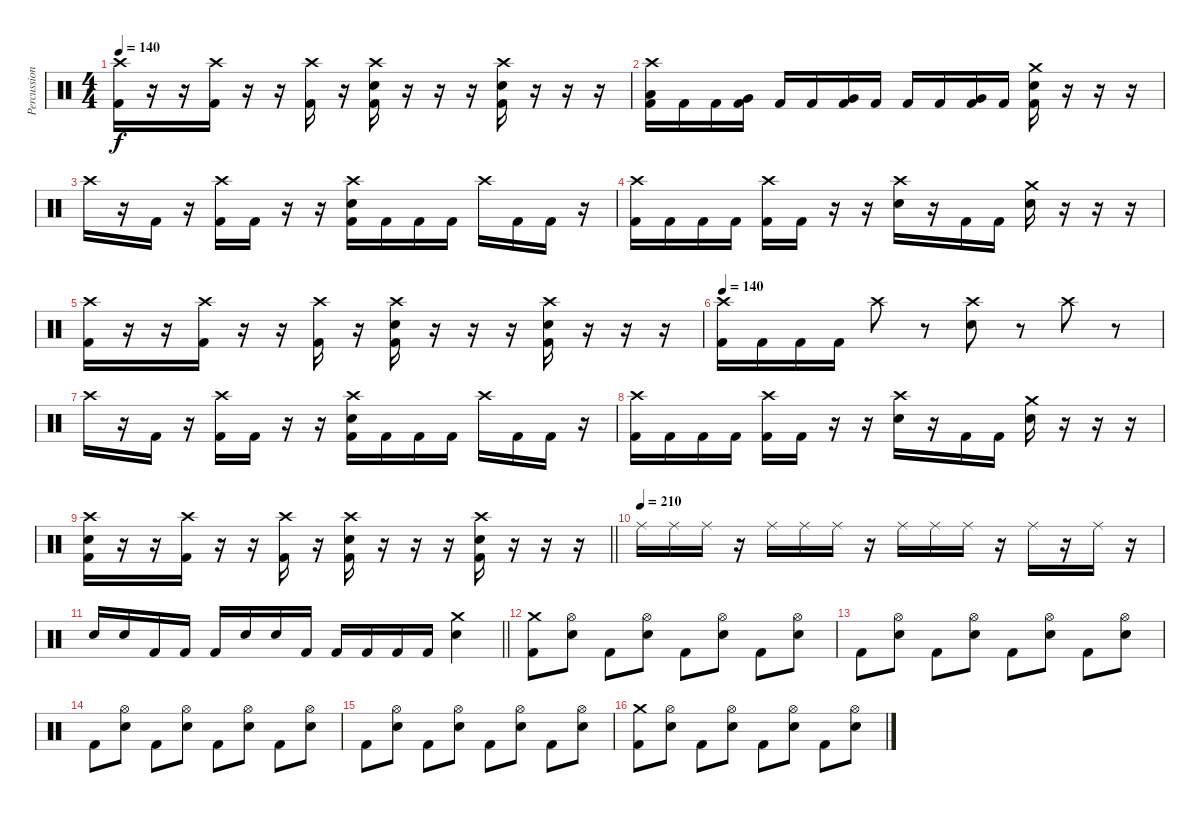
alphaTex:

\track ("Percussion" "Percussion") {instrument percussion}
\staff {score}
\articulation defaults
\ts (4 4)
\tempo 140
\clef neutral
\ks c
("Crash high (hit)" "Kick (hit) 2").16{dy f} r.16 r.16 ("Crash high (hit)" "Kick (hit) 2").16 r.16 r.16 ("Crash high (hit)" "Kick (hit) 2").16 r.16 ("Crash high (hit)" "Snare (hit) 2" "Kick (hit) 2").16 r.16 r.16 r.16 ("Crash high (hit)" "Snare (hit) 2" "Kick (hit) 2").16 r.16 r.16 r.16 |
("Crash high (hit)" "Low Tom (hit)" "Kick (hit) 2").16 "Kick (hit) 2".16 "Kick (hit) 2".16 ("Very Low Tom (hit)" "Kick (hit) 2").16 "Kick (hit) 2".16 "Kick (hit) 2".16 ("Very Low Tom (hit)" "Kick (hit) 2").16 "Kick (hit) 2".16 "Kick (hit) 2".16 "Kick (hit) 2".16 ("Very Low Tom (hit)" "Kick (hit) 2").16 "Kick (hit) 2".16 ("Crash medium (hit)" "Snare (hit) 2" "Kick (hit) 2").16 r.16 r.16 r.16 |
"Crash high (hit)".16 r.16 "Kick (hit) 2".16 r.16 ("Crash high (hit)" "Kick (hit) 2").16 "Kick (hit) 2".16 r.16 r.16 ("Crash high (hit)" "Snare (hit) 2" "Kick (hit) 2").16 "Kick (hit) 2".16 "Kick (hit) 2".16 "Kick (hit) 2".16 "Crash high (hit)".16 "Kick (hit) 2".16 "Kick (hit) 2".16 r.16 |
("Crash high (hit)" "Kick (hit) 2").16 "Kick (hit) 2".16 "Kick (hit) 2".16 "Kick (hit) 2".16 ("Crash high (hit)" "Kick (hit) 2").16 "Kick (hit) 2".16 r.16 r.16 ("Crash high (hit)" "Snare (hit) 2").16 r.16 "Kick (hit) 2".16 "Kick (hit) 2".16 ("Crash medium (hit)" "Snare (hit) 2").16 r.16 r.16 r.16 |
("Crash high (hit)" "Kick (hit) 2").16 r.16 r.16 ("Crash high (hit)" "Kick (hit) 2").16 r.16 r.16 ("Crash high (hit)" "Kick (hit) 2").16 r.16 ("Crash high (hit)" "Snare (hit) 2" "Kick (hit) 2").16 r.16 r.16 r.16 ("Crash high (hit)" "Snare (hit) 2" "Kick (hit) 2").16 r.16 r.16 r.16 |
\tempo 140
("Crash high (hit)" "Kick (hit) 2").16 "Kick (hit) 2".16 "Kick (hit) 2".16 "Kick (hit) 2".16 "Crash high (hit)".8 r.8 ("Crash high (hit)" "Snare (hit) 2").8 r.8 "Crash high (hit)".8 r.8 |
"Crash high (hit)".16 r.16 "Kick (hit) 2".16 r.16 ("Crash high (hit)" "Kick (hit) 2").16 "Kick (hit) 2".16 r.16 r.16 ("Crash high (hit)" "Snare (hit) 2" "Kick (hit) 2").16 "Kick (hit) 2".16 "Kick (hit) 2".16 "Kick (hit) 2".16 "Crash high (hit)".16 "Kick (hit) 2".16 "Kick (hit) 2".16 r.16 |
("Crash high (hit)" "Kick (hit) 2").16 "Kick (hit) 2".16 "Kick (hit) 2".16 "Kick (hit) 2".16 ("Crash high (hit)" "Kick (hit) 2").16 "Kick (hit) 2".16 r.16 r.16 ("Crash high (hit)" "Snare (hit) 2").16 r.16 "Kick (hit) 2".16 "Kick (hit) 2".16 ("Crash medium (hit)" "Snare (hit) 2").16 r.16 r.16 r.16 |
\barLineRight lightlight
("Crash high (hit)" "Snare (hit) 2" "Kick (hit) 2").16 r.16 r.16 ("Crash high (hit)" "Kick (hit) 2").16 r.16 r.16 ("Crash high (hit)" "Kick (hit) 2").16 r.16 ("Crash high (hit)" "Snare (hit) 2" "Kick (hit) 2").16 r.16 r.16 r.16 ("Crash high (hit)" "Snare (hit) 2" "Kick (hit) 2").16 r.16 r.16 r.16 |
\tempo (210)
"Ride (middle)".16 "Ride (middle)".16 "Ride (middle)".16 r.16 "Ride (middle)".16 "Ride (middle)".16 "Ride (middle)".16 r.16 "Ride (middle)".16 "Ride (middle)".16 "Ride (middle)".16 r.16 "Ride (middle)".16 r.16 "Ride (middle)".16 r.16 |
\barLineRight lightlight "Snare (hit) 2".16 "Snare (hit) 2".16 "Kick (hit) 2".16 "Kick (hit) 2".16 "Kick (hit) 2".16 "Snare (hit) 2".16 "Snare (hit) 2".16 "Kick (hit) 2".16 "Kick (hit) 2".16 "Kick (hit) 2".16 "Kick (hit) 2".16 "Kick (hit) 2".16
("Crash medium (hit)" "Snare (hit) 2").4 |
("Crash medium (hit)" "Kick (hit) 2").8 ("Hi-Hat (open)" "Snare (hit) 2").8 "Kick (hit) 2".8 ("Hi-Hat (open)" "Snare (hit) 2").8 "Kick (hit) 2".8 ("Hi-Hat (open)" "Snare (hit) 2").8 "Kick (hit) 2".8 ("Hi-Hat (open)" "Snare (hit) 2").8 |
"Kick (hit) 2".8 ("Hi-Hat (open)" "Snare (hit) 2").8 "Kick (hit) 2".8 ("Hi-Hat (open)" "Snare (hit) 2").8 "Kick (hit) 2".8 ("Hi-Hat (open)" "Snare (hit) 2").8 "Kick (hit) 2".8 ("Hi-Hat (open)" "Snare (hit) 2").8 |
"Kick (hit) 2".8 ("Hi-Hat (open)" "Snare (hit) 2").8 "Kick (hit) 2".8 ("Hi-Hat (open)" "Snare (hit) 2").8 "Kick (hit) 2".8 ("Hi-Hat (open)" "Snare (hit) 2").8 "Kick (hit) 2".8 ("Hi-Hat (open)" "Snare (hit) 2").8 |
"Kick (hit) 2".8 ("Hi-Hat (open)" "Snare (hit) 2").8 "Kick (hit) 2".8 ("Hi-Hat (open)" "Snare (hit) 2").8 "Kick (hit) 2".8 ("Hi-Hat (open)" "Snare (hit) 2").8 "Kick (hit) 2".8 ("Hi-Hat (open)" "Snare (hit) 2").8 |
("Crash medium (hit)" "Kick (hit) 2").8 ("Hi-Hat (open)" "Snare (hit) 2").8 "Kick (hit) 2".8 ("Hi-Hat (open)" "Snare (hit) 2").8 "Kick (hit) 2".8 ("Hi-Hat (open)" "Snare (hit) 2").8 "Kick (hit) 2".8 ("Hi-Hat (open)" "Snare (hit) 2").8
